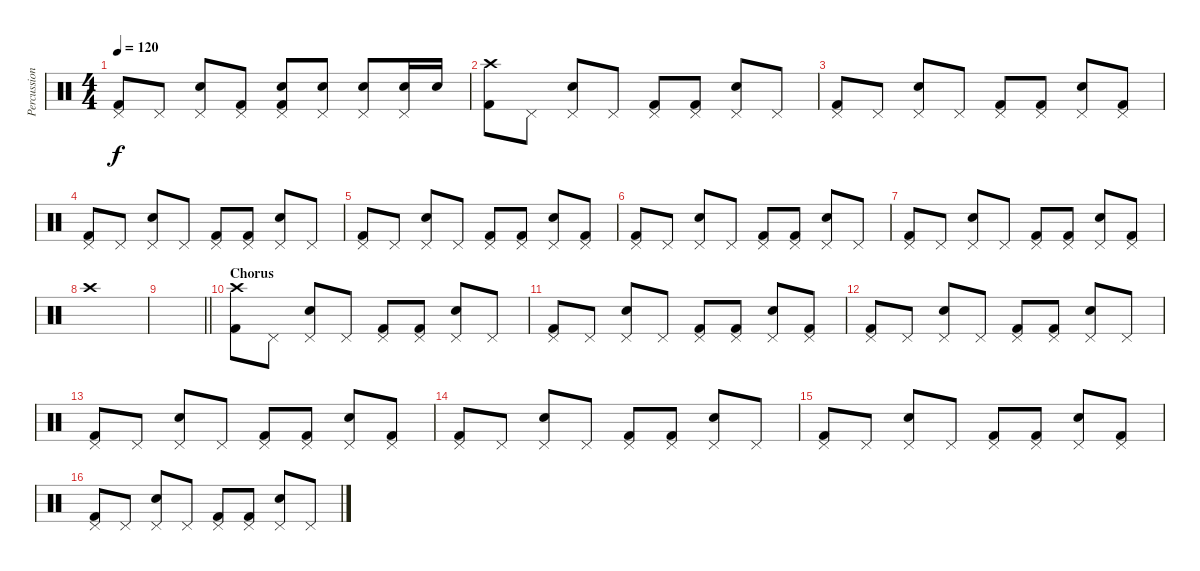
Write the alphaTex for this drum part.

\track ("Percussion" "Percussion") {instrument percussion}
\staff {score}
\articulation defaults
\ts (4 4)
\tempo 120
\clef neutral
\ks c
("Pedal Hi-Hat (hit)" "Kick (hit) 2").8{dy f} "Pedal Hi-Hat (hit)".8 ("Pedal Hi-Hat (hit)" "Snare (hit) 2").8 ("Pedal Hi-Hat (hit)" "Kick (hit) 2").8 ("Pedal Hi-Hat (hit)" "Snare (hit) 2" "Kick (hit) 2").8 ("Pedal Hi-Hat (hit)" "Snare (hit) 2").8 ("Pedal Hi-Hat (hit)" "Snare (hit) 2").8 ("Pedal Hi-Hat (hit)" "Snare (hit) 2").16 "Snare (hit) 2".16 |
("Crash high (hit)" "Kick (hit) 2").8 "Pedal Hi-Hat (hit)".8 ("Pedal Hi-Hat (hit)" "Snare (hit) 2").8 "Pedal Hi-Hat (hit)".8 ("Pedal Hi-Hat (hit)" "Kick (hit) 2").8 ("Pedal Hi-Hat (hit)" "Kick (hit) 2").8 ("Pedal Hi-Hat (hit)" "Snare (hit) 2").8 "Pedal Hi-Hat (hit)".8 |
("Pedal Hi-Hat (hit)" "Kick (hit) 2").8 "Pedal Hi-Hat (hit)".8 ("Pedal Hi-Hat (hit)" "Snare (hit) 2").8 "Pedal Hi-Hat (hit)".8 ("Pedal Hi-Hat (hit)" "Kick (hit) 2").8 ("Pedal Hi-Hat (hit)" "Kick (hit) 2").8 ("Pedal Hi-Hat (hit)" "Snare (hit) 2").8 ("Pedal Hi-Hat (hit)" "Kick (hit) 2").8 |
("Pedal Hi-Hat (hit)" "Kick (hit) 2").8 "Pedal Hi-Hat (hit)".8 ("Pedal Hi-Hat (hit)" "Snare (hit) 2").8 "Pedal Hi-Hat (hit)".8 ("Pedal Hi-Hat (hit)" "Kick (hit) 2").8 ("Pedal Hi-Hat (hit)" "Kick (hit) 2").8 ("Pedal Hi-Hat (hit)" "Snare (hit) 2").8 "Pedal Hi-Hat (hit)".8 |
("Pedal Hi-Hat (hit)" "Kick (hit) 2").8 "Pedal Hi-Hat (hit)".8 ("Pedal Hi-Hat (hit)" "Snare (hit) 2").8 "Pedal Hi-Hat (hit)".8 ("Pedal Hi-Hat (hit)" "Kick (hit) 2").8 ("Pedal Hi-Hat (hit)" "Kick (hit) 2").8 ("Pedal Hi-Hat (hit)" "Snare (hit) 2").8 ("Pedal Hi-Hat (hit)" "Kick (hit) 2").8 |
("Pedal Hi-Hat (hit)" "Kick (hit) 2").8 "Pedal Hi-Hat (hit)".8 ("Pedal Hi-Hat (hit)" "Snare (hit) 2").8 "Pedal Hi-Hat (hit)".8 ("Pedal Hi-Hat (hit)" "Kick (hit) 2").8 ("Pedal Hi-Hat (hit)" "Kick (hit) 2").8 ("Pedal Hi-Hat (hit)" "Snare (hit) 2").8 "Pedal Hi-Hat (hit)".8 |
("Pedal Hi-Hat (hit)" "Kick (hit) 2").8 "Pedal Hi-Hat (hit)".8 ("Pedal Hi-Hat (hit)" "Snare (hit) 2").8 "Pedal Hi-Hat (hit)".8 ("Pedal Hi-Hat (hit)" "Kick (hit) 2").8 ("Pedal Hi-Hat (hit)" "Kick (hit) 2").8 ("Pedal Hi-Hat (hit)" "Snare (hit) 2").8 ("Pedal Hi-Hat (hit)" "Kick (hit) 2").8 |
"Crash high (hit)".1 |
\barLineRight lightlight
|
\section ("" "Chorus")
("Crash high (hit)" "Kick (hit) 2").8 "Pedal Hi-Hat (hit)".8 ("Pedal Hi-Hat (hit)" "Snare (hit) 2").8 "Pedal Hi-Hat (hit)".8 ("Pedal Hi-Hat (hit)" "Kick (hit) 2").8 ("Pedal Hi-Hat (hit)" "Kick (hit) 2").8 ("Pedal Hi-Hat (hit)" "Snare (hit) 2").8 "Pedal Hi-Hat (hit)".8 |
("Pedal Hi-Hat (hit)" "Kick (hit) 2").8 "Pedal Hi-Hat (hit)".8 ("Pedal Hi-Hat (hit)" "Snare (hit) 2").8 "Pedal Hi-Hat (hit)".8 ("Pedal Hi-Hat (hit)" "Kick (hit) 2").8 ("Pedal Hi-Hat (hit)" "Kick (hit) 2").8 ("Pedal Hi-Hat (hit)" "Snare (hit) 2").8 ("Pedal Hi-Hat (hit)" "Kick (hit) 2").8 |
("Pedal Hi-Hat (hit)" "Kick (hit) 2").8 "Pedal Hi-Hat (hit)".8 ("Pedal Hi-Hat (hit)" "Snare (hit) 2").8 "Pedal Hi-Hat (hit)".8 ("Pedal Hi-Hat (hit)" "Kick (hit) 2").8 ("Pedal Hi-Hat (hit)" "Kick (hit) 2").8 ("Pedal Hi-Hat (hit)" "Snare (hit) 2").8 "Pedal Hi-Hat (hit)".8 |
("Pedal Hi-Hat (hit)" "Kick (hit) 2").8 "Pedal Hi-Hat (hit)".8 ("Pedal Hi-Hat (hit)" "Snare (hit) 2").8 "Pedal Hi-Hat (hit)".8 ("Pedal Hi-Hat (hit)" "Kick (hit) 2").8 ("Pedal Hi-Hat (hit)" "Kick (hit) 2").8 ("Pedal Hi-Hat (hit)" "Snare (hit) 2").8 ("Pedal Hi-Hat (hit)" "Kick (hit) 2").8 |
("Pedal Hi-Hat (hit)" "Kick (hit) 2").8 "Pedal Hi-Hat (hit)".8 ("Pedal Hi-Hat (hit)" "Snare (hit) 2").8 "Pedal Hi-Hat (hit)".8 ("Pedal Hi-Hat (hit)" "Kick (hit) 2").8 ("Pedal Hi-Hat (hit)" "Kick (hit) 2").8 ("Pedal Hi-Hat (hit)" "Snare (hit) 2").8 "Pedal Hi-Hat (hit)".8 |
("Pedal Hi-Hat (hit)" "Kick (hit) 2").8 "Pedal Hi-Hat (hit)".8 ("Pedal Hi-Hat (hit)" "Snare (hit) 2").8 "Pedal Hi-Hat (hit)".8 ("Pedal Hi-Hat (hit)" "Kick (hit) 2").8 ("Pedal Hi-Hat (hit)" "Kick (hit) 2").8 ("Pedal Hi-Hat (hit)" "Snare (hit) 2").8 ("Pedal Hi-Hat (hit)" "Kick (hit) 2").8 |
("Pedal Hi-Hat (hit)" "Kick (hit) 2").8 "Pedal Hi-Hat (hit)".8 ("Pedal Hi-Hat (hit)" "Snare (hit) 2").8 "Pedal Hi-Hat (hit)".8 ("Pedal Hi-Hat (hit)" "Kick (hit) 2").8 ("Pedal Hi-Hat (hit)" "Kick (hit) 2").8 ("Pedal Hi-Hat (hit)" "Snare (hit) 2").8 "Pedal Hi-Hat (hit)".8
